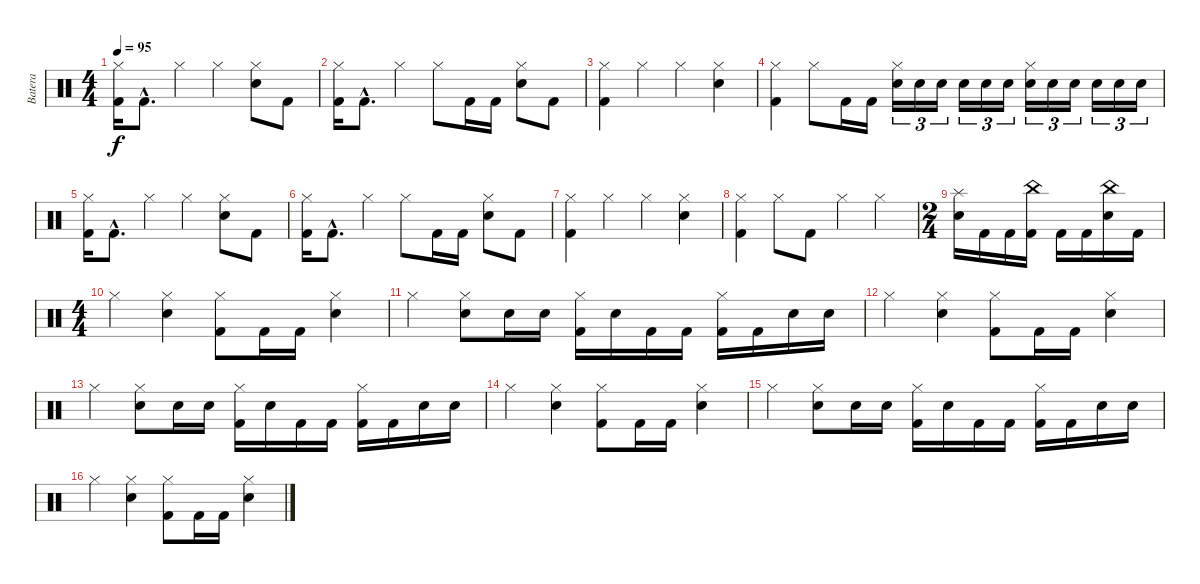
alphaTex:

\track ("Batera" "Batera") {instrument percussion}
\staff {score}
\articulation defaults
\ts (4 4)
\tempo 95
\clef neutral
\ks c
("Hi-Hat (closed)" "Kick (hit) 2").16{dy f} "Kick (hit) 2"{hac}.8{d} "Hi-Hat (closed)".4 "Hi-Hat (closed)".4 ("Hi-Hat (closed)" "Snare (hit) 2").8 "Kick (hit) 2".8 |
("Hi-Hat (closed)" "Kick (hit) 2").16 "Kick (hit) 2"{hac}.8{d} "Hi-Hat (closed)".4 "Hi-Hat (closed)".8 "Kick (hit) 2".16 "Kick (hit) 2".16 ("Hi-Hat (closed)" "Snare (hit) 2").8 "Kick (hit) 2".8 |
("Hi-Hat (closed)" "Kick (hit) 2").4 "Hi-Hat (closed)".4 "Hi-Hat (closed)".4 ("Hi-Hat (closed)" "Snare (hit) 2").4 |
("Hi-Hat (closed)" "Kick (hit) 2").4 "Hi-Hat (closed)".8 "Kick (hit) 2".16 "Kick (hit) 2".16 ("Hi-Hat (closed)" "Snare (hit) 2").16{tu (3 2)} "Snare (hit) 2".16{tu (3 2)} "Snare (hit) 2".16{tu (3 2)} "Snare (hit) 2".16{tu (3 2)} "Snare (hit) 2".16{tu (3 2)} "Snare (hit) 2".16{tu (3 2)} ("Hi-Hat (closed)" "Snare (hit) 2").16{tu (3 2)} "Snare (hit) 2".16{tu (3 2)} "Snare (hit) 2".16{tu (3 2)} "Snare (hit) 2".16{tu (3 2)} "Snare (hit) 2".16{tu (3 2)} "Snare (hit) 2".16{tu (3 2)} |
("Hi-Hat (closed)" "Kick (hit) 2").16 "Kick (hit) 2"{hac}.8{d} "Hi-Hat (closed)".4 "Hi-Hat (closed)".4 ("Hi-Hat (closed)" "Snare (hit) 2").8 "Kick (hit) 2".8 |
("Hi-Hat (closed)" "Kick (hit) 2").16 "Kick (hit) 2"{hac}.8{d} "Hi-Hat (closed)".4 "Hi-Hat (closed)".8 "Kick (hit) 2".16 "Kick (hit) 2".16 ("Hi-Hat (closed)" "Snare (hit) 2").8 "Kick (hit) 2".8 |
("Hi-Hat (closed)" "Kick (hit) 2").4 "Hi-Hat (closed)".4 "Hi-Hat (closed)".4 ("Hi-Hat (closed)" "Snare (hit) 2").4 |
("Hi-Hat (closed)" "Kick (hit) 2").4 "Hi-Hat (closed)".8 "Kick (hit) 2".8 "Hi-Hat (closed)".4 "Hi-Hat (closed)".4 |
\ts (2 4)
("Splash (hit)" "Snare (hit) 2").16 "Kick (hit) 2".16 "Kick (hit) 2".16 ("China (hit)" "Kick (hit) 2").16 "Kick (hit) 2".16 "Kick (hit) 2".16 ("China (hit)" "Snare (hit) 2").16 "Kick (hit) 2".16 |
\ts (4 4)
"Hi-Hat (closed)".4 ("Hi-Hat (closed)" "Snare (hit) 2").4 ("Hi-Hat (closed)" "Kick (hit) 2").8 "Kick (hit) 2".16 "Kick (hit) 2".16 ("Hi-Hat (closed)" "Snare (hit) 2").4 |
"Hi-Hat (closed)".4 ("Hi-Hat (closed)" "Snare (hit) 2").8 "Snare (hit) 2".16 "Snare (hit) 2".16 ("Hi-Hat (closed)" "Kick (hit) 2").16 "Snare (hit) 2".16 "Kick (hit) 2".16 "Kick (hit) 2".16 ("Hi-Hat (closed)" "Kick (hit) 2").16 "Kick (hit) 2".16 "Snare (hit) 2".16 "Snare (hit) 2".16 |
"Hi-Hat (closed)".4 ("Hi-Hat (closed)" "Snare (hit) 2").4 ("Hi-Hat (closed)" "Kick (hit) 2").8 "Kick (hit) 2".16 "Kick (hit) 2".16 ("Hi-Hat (closed)" "Snare (hit) 2").4 |
"Hi-Hat (closed)".4 ("Hi-Hat (closed)" "Snare (hit) 2").8 "Snare (hit) 2".16 "Snare (hit) 2".16 ("Hi-Hat (closed)" "Kick (hit) 2").16 "Snare (hit) 2".16 "Kick (hit) 2".16 "Kick (hit) 2".16 ("Hi-Hat (closed)" "Kick (hit) 2").16 "Kick (hit) 2".16 "Snare (hit) 2".16 "Snare (hit) 2".16 |
"Hi-Hat (closed)".4 ("Hi-Hat (closed)" "Snare (hit) 2").4 ("Hi-Hat (closed)" "Kick (hit) 2").8 "Kick (hit) 2".16 "Kick (hit) 2".16 ("Hi-Hat (closed)" "Snare (hit) 2").4 |
"Hi-Hat (closed)".4 ("Hi-Hat (closed)" "Snare (hit) 2").8 "Snare (hit) 2".16 "Snare (hit) 2".16 ("Hi-Hat (closed)" "Kick (hit) 2").16 "Snare (hit) 2".16 "Kick (hit) 2".16 "Kick (hit) 2".16 ("Hi-Hat (closed)" "Kick (hit) 2").16 "Kick (hit) 2".16 "Snare (hit) 2".16 "Snare (hit) 2".16 |
"Hi-Hat (closed)".4 ("Hi-Hat (closed)" "Snare (hit) 2").4 ("Hi-Hat (closed)" "Kick (hit) 2").8 "Kick (hit) 2".16 "Kick (hit) 2".16 ("Hi-Hat (closed)" "Snare (hit) 2").4
